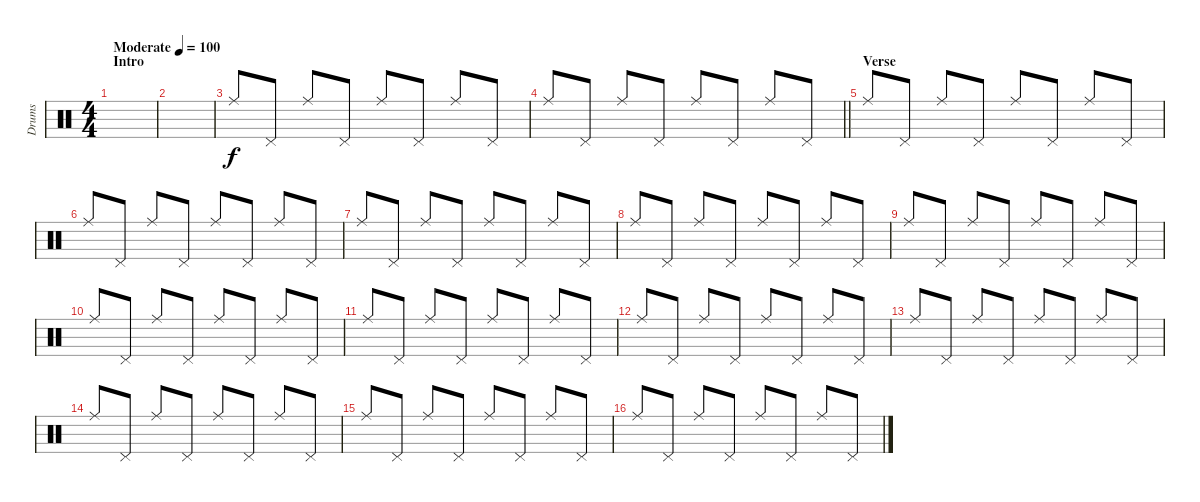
\track ("Drums" "Drums") {instrument percussion}
\staff {score}
\articulation defaults
\ts (4 4)
\section ("" "Intro")
\tempo (100 "Moderate")
\clef neutral
\ks c
|
|
"Ride (middle)".8 "Pedal Hi-Hat (hit)".8 "Ride (middle)".8 "Pedal Hi-Hat (hit)".8 "Ride (middle)".8 "Pedal Hi-Hat (hit)".8 "Ride (middle)".8 "Pedal Hi-Hat (hit)".8 |
\barLineRight lightlight "Ride (middle)".8 "Pedal Hi-Hat (hit)".8 "Ride (middle)".8 "Pedal Hi-Hat (hit)".8 "Ride (middle)".8 "Pedal Hi-Hat (hit)".8 "Ride (middle)".8 "Pedal Hi-Hat (hit)".8
|
\section ("" "Verse")
"Ride (middle)".8 "Pedal Hi-Hat (hit)".8 "Ride (middle)".8 "Pedal Hi-Hat (hit)".8 "Ride (middle)".8 "Pedal Hi-Hat (hit)".8 "Ride (middle)".8 "Pedal Hi-Hat (hit)".8 |
"Ride (middle)".8 "Pedal Hi-Hat (hit)".8 "Ride (middle)".8 "Pedal Hi-Hat (hit)".8 "Ride (middle)".8 "Pedal Hi-Hat (hit)".8 "Ride (middle)".8 "Pedal Hi-Hat (hit)".8 |
"Ride (middle)".8 "Pedal Hi-Hat (hit)".8 "Ride (middle)".8 "Pedal Hi-Hat (hit)".8 "Ride (middle)".8 "Pedal Hi-Hat (hit)".8 "Ride (middle)".8 "Pedal Hi-Hat (hit)".8 |
"Ride (middle)".8 "Pedal Hi-Hat (hit)".8 "Ride (middle)".8 "Pedal Hi-Hat (hit)".8 "Ride (middle)".8 "Pedal Hi-Hat (hit)".8 "Ride (middle)".8 "Pedal Hi-Hat (hit)".8 |
"Ride (middle)".8 "Pedal Hi-Hat (hit)".8 "Ride (middle)".8 "Pedal Hi-Hat (hit)".8 "Ride (middle)".8 "Pedal Hi-Hat (hit)".8 "Ride (middle)".8 "Pedal Hi-Hat (hit)".8 |
"Ride (middle)".8 "Pedal Hi-Hat (hit)".8 "Ride (middle)".8 "Pedal Hi-Hat (hit)".8 "Ride (middle)".8 "Pedal Hi-Hat (hit)".8 "Ride (middle)".8 "Pedal Hi-Hat (hit)".8 |
"Ride (middle)".8 "Pedal Hi-Hat (hit)".8 "Ride (middle)".8 "Pedal Hi-Hat (hit)".8 "Ride (middle)".8 "Pedal Hi-Hat (hit)".8 "Ride (middle)".8 "Pedal Hi-Hat (hit)".8 |
"Ride (middle)".8 "Pedal Hi-Hat (hit)".8 "Ride (middle)".8 "Pedal Hi-Hat (hit)".8 "Ride (middle)".8 "Pedal Hi-Hat (hit)".8 "Ride (middle)".8 "Pedal Hi-Hat (hit)".8 |
"Ride (middle)".8 "Pedal Hi-Hat (hit)".8 "Ride (middle)".8 "Pedal Hi-Hat (hit)".8 "Ride (middle)".8 "Pedal Hi-Hat (hit)".8 "Ride (middle)".8 "Pedal Hi-Hat (hit)".8 |
"Ride (middle)".8 "Pedal Hi-Hat (hit)".8 "Ride (middle)".8 "Pedal Hi-Hat (hit)".8 "Ride (middle)".8 "Pedal Hi-Hat (hit)".8 "Ride (middle)".8 "Pedal Hi-Hat (hit)".8 |
"Ride (middle)".8 "Pedal Hi-Hat (hit)".8 "Ride (middle)".8 "Pedal Hi-Hat (hit)".8 "Ride (middle)".8 "Pedal Hi-Hat (hit)".8 "Ride (middle)".8 "Pedal Hi-Hat (hit)".8 |
"Ride (middle)".8 "Pedal Hi-Hat (hit)".8 "Ride (middle)".8 "Pedal Hi-Hat (hit)".8 "Ride (middle)".8 "Pedal Hi-Hat (hit)".8 "Ride (middle)".8 "Pedal Hi-Hat (hit)".8
